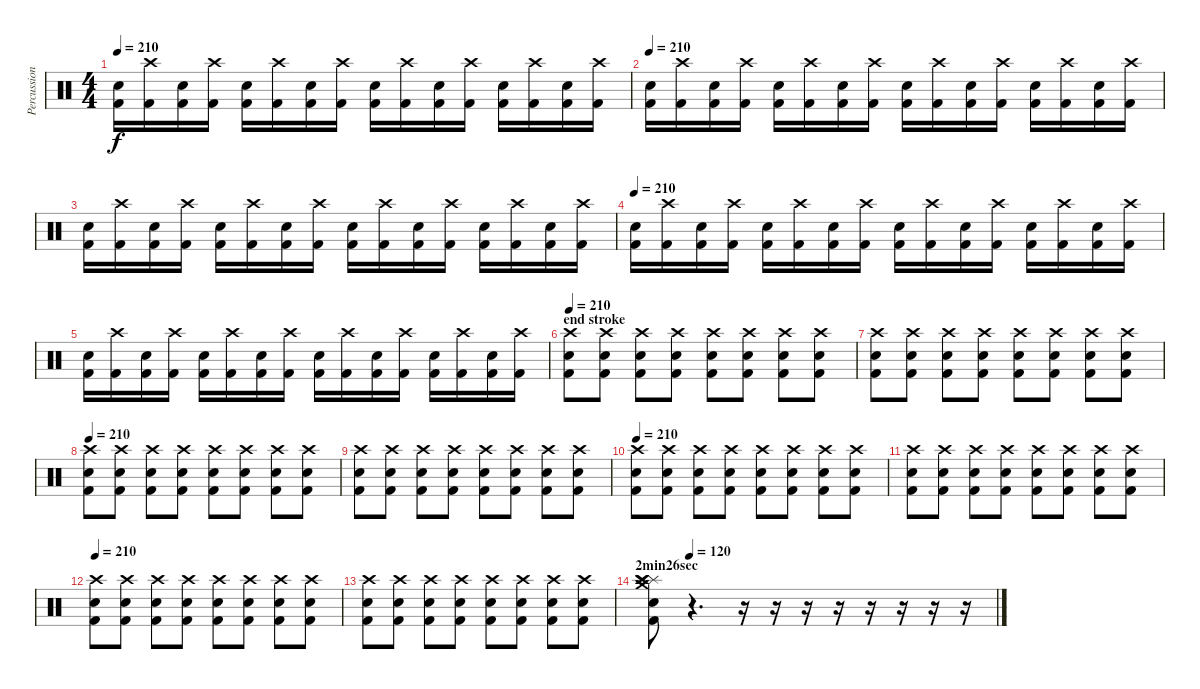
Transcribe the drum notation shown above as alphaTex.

\track ("Percussion" "Percussion") {instrument percussion}
\staff {score}
\articulation defaults
\ts (4 4)
\tempo 210
\clef neutral
\ks c
("Snare (hit) 2" "Kick (hit) 2").16{dy f} ("Crash high (hit)" "Kick (hit) 2").16 ("Snare (hit) 2" "Kick (hit) 2").16 ("Crash high (hit)" "Kick (hit) 2").16 ("Snare (hit) 2" "Kick (hit) 2").16 ("Crash high (hit)" "Kick (hit) 2").16 ("Snare (hit) 2" "Kick (hit) 2").16 ("Crash high (hit)" "Kick (hit) 2").16 ("Snare (hit) 2" "Kick (hit) 2").16 ("Crash high (hit)" "Kick (hit) 2").16 ("Snare (hit) 2" "Kick (hit) 2").16 ("Crash high (hit)" "Kick (hit) 2").16 ("Snare (hit) 2" "Kick (hit) 2").16 ("Crash high (hit)" "Kick (hit) 2").16 ("Snare (hit) 2" "Kick (hit) 2").16 ("Crash high (hit)" "Kick (hit) 2").16 |
\tempo 210
("Snare (hit) 2" "Kick (hit) 2").16 ("Crash high (hit)" "Kick (hit) 2").16 ("Snare (hit) 2" "Kick (hit) 2").16 ("Crash high (hit)" "Kick (hit) 2").16 ("Snare (hit) 2" "Kick (hit) 2").16 ("Crash high (hit)" "Kick (hit) 2").16 ("Snare (hit) 2" "Kick (hit) 2").16 ("Crash high (hit)" "Kick (hit) 2").16 ("Snare (hit) 2" "Kick (hit) 2").16 ("Crash high (hit)" "Kick (hit) 2").16 ("Snare (hit) 2" "Kick (hit) 2").16 ("Crash high (hit)" "Kick (hit) 2").16 ("Snare (hit) 2" "Kick (hit) 2").16 ("Crash high (hit)" "Kick (hit) 2").16 ("Snare (hit) 2" "Kick (hit) 2").16 ("Crash high (hit)" "Kick (hit) 2").16 |
("Snare (hit) 2" "Kick (hit) 2").16 ("Crash high (hit)" "Kick (hit) 2").16 ("Snare (hit) 2" "Kick (hit) 2").16 ("Crash high (hit)" "Kick (hit) 2").16 ("Snare (hit) 2" "Kick (hit) 2").16 ("Crash high (hit)" "Kick (hit) 2").16 ("Snare (hit) 2" "Kick (hit) 2").16 ("Crash high (hit)" "Kick (hit) 2").16 ("Snare (hit) 2" "Kick (hit) 2").16 ("Crash high (hit)" "Kick (hit) 2").16 ("Snare (hit) 2" "Kick (hit) 2").16 ("Crash high (hit)" "Kick (hit) 2").16 ("Snare (hit) 2" "Kick (hit) 2").16 ("Crash high (hit)" "Kick (hit) 2").16 ("Snare (hit) 2" "Kick (hit) 2").16 ("Crash high (hit)" "Kick (hit) 2").16 |
\tempo 210
("Snare (hit) 2" "Kick (hit) 2").16 ("Crash high (hit)" "Kick (hit) 2").16 ("Snare (hit) 2" "Kick (hit) 2").16 ("Crash high (hit)" "Kick (hit) 2").16 ("Snare (hit) 2" "Kick (hit) 2").16 ("Crash high (hit)" "Kick (hit) 2").16 ("Snare (hit) 2" "Kick (hit) 2").16 ("Crash high (hit)" "Kick (hit) 2").16 ("Snare (hit) 2" "Kick (hit) 2").16 ("Crash high (hit)" "Kick (hit) 2").16 ("Snare (hit) 2" "Kick (hit) 2").16 ("Crash high (hit)" "Kick (hit) 2").16 ("Snare (hit) 2" "Kick (hit) 2").16 ("Crash high (hit)" "Kick (hit) 2").16 ("Snare (hit) 2" "Kick (hit) 2").16 ("Crash high (hit)" "Kick (hit) 2").16 |
("Snare (hit) 2" "Kick (hit) 2").16 ("Crash high (hit)" "Kick (hit) 2").16 ("Snare (hit) 2" "Kick (hit) 2").16 ("Crash high (hit)" "Kick (hit) 2").16 ("Snare (hit) 2" "Kick (hit) 2").16 ("Crash high (hit)" "Kick (hit) 2").16 ("Snare (hit) 2" "Kick (hit) 2").16 ("Crash high (hit)" "Kick (hit) 2").16 ("Snare (hit) 2" "Kick (hit) 2").16 ("Crash high (hit)" "Kick (hit) 2").16 ("Snare (hit) 2" "Kick (hit) 2").16 ("Crash high (hit)" "Kick (hit) 2").16 ("Snare (hit) 2" "Kick (hit) 2").16 ("Crash high (hit)" "Kick (hit) 2").16 ("Snare (hit) 2" "Kick (hit) 2").16 ("Crash high (hit)" "Kick (hit) 2").16 |
\section ("" "end stroke")
\tempo 210
("Crash high (hit)" "Snare (hit) 2" "Kick (hit) 2").8 ("Crash high (hit)" "Snare (hit) 2" "Kick (hit) 2").8 ("Crash high (hit)" "Snare (hit) 2" "Kick (hit) 2").8 ("Crash high (hit)" "Snare (hit) 2" "Kick (hit) 2").8 ("Crash high (hit)" "Snare (hit) 2" "Kick (hit) 2").8 ("Crash high (hit)" "Snare (hit) 2" "Kick (hit) 2").8 ("Crash high (hit)" "Snare (hit) 2" "Kick (hit) 2").8 ("Crash high (hit)" "Snare (hit) 2" "Kick (hit) 2").8 |
("Crash high (hit)" "Snare (hit) 2" "Kick (hit) 2").8 ("Crash high (hit)" "Snare (hit) 2" "Kick (hit) 2").8 ("Crash high (hit)" "Snare (hit) 2" "Kick (hit) 2").8 ("Crash high (hit)" "Snare (hit) 2" "Kick (hit) 2").8 ("Crash high (hit)" "Snare (hit) 2" "Kick (hit) 2").8 ("Crash high (hit)" "Snare (hit) 2" "Kick (hit) 2").8 ("Crash high (hit)" "Snare (hit) 2" "Kick (hit) 2").8 ("Crash high (hit)" "Snare (hit) 2" "Kick (hit) 2").8 |
\tempo 210
("Crash high (hit)" "Snare (hit) 2" "Kick (hit) 2").8 ("Crash high (hit)" "Snare (hit) 2" "Kick (hit) 2").8 ("Crash high (hit)" "Snare (hit) 2" "Kick (hit) 2").8 ("Crash high (hit)" "Snare (hit) 2" "Kick (hit) 2").8 ("Crash high (hit)" "Snare (hit) 2" "Kick (hit) 2").8 ("Crash high (hit)" "Snare (hit) 2" "Kick (hit) 2").8 ("Crash high (hit)" "Snare (hit) 2" "Kick (hit) 2").8 ("Crash high (hit)" "Snare (hit) 2" "Kick (hit) 2").8 |
("Crash high (hit)" "Snare (hit) 2" "Kick (hit) 2").8 ("Crash high (hit)" "Snare (hit) 2" "Kick (hit) 2").8 ("Crash high (hit)" "Snare (hit) 2" "Kick (hit) 2").8 ("Crash high (hit)" "Snare (hit) 2" "Kick (hit) 2").8 ("Crash high (hit)" "Snare (hit) 2" "Kick (hit) 2").8 ("Crash high (hit)" "Snare (hit) 2" "Kick (hit) 2").8 ("Crash high (hit)" "Snare (hit) 2" "Kick (hit) 2").8 ("Crash high (hit)" "Snare (hit) 2" "Kick (hit) 2").8 |
\tempo 210
("Crash high (hit)" "Snare (hit) 2" "Kick (hit) 2").8 ("Crash high (hit)" "Snare (hit) 2" "Kick (hit) 2").8 ("Crash high (hit)" "Snare (hit) 2" "Kick (hit) 2").8 ("Crash high (hit)" "Snare (hit) 2" "Kick (hit) 2").8 ("Crash high (hit)" "Snare (hit) 2" "Kick (hit) 2").8 ("Crash high (hit)" "Snare (hit) 2" "Kick (hit) 2").8 ("Crash high (hit)" "Snare (hit) 2" "Kick (hit) 2").8 ("Crash high (hit)" "Snare (hit) 2" "Kick (hit) 2").8 |
("Crash high (hit)" "Snare (hit) 2" "Kick (hit) 2").8 ("Crash high (hit)" "Snare (hit) 2" "Kick (hit) 2").8 ("Crash high (hit)" "Snare (hit) 2" "Kick (hit) 2").8 ("Crash high (hit)" "Snare (hit) 2" "Kick (hit) 2").8 ("Crash high (hit)" "Snare (hit) 2" "Kick (hit) 2").8 ("Crash high (hit)" "Snare (hit) 2" "Kick (hit) 2").8 ("Crash high (hit)" "Snare (hit) 2" "Kick (hit) 2").8 ("Crash high (hit)" "Snare (hit) 2" "Kick (hit) 2").8 |
\tempo 210
("Crash high (hit)" "Snare (hit) 2" "Kick (hit) 2").8 ("Crash high (hit)" "Snare (hit) 2" "Kick (hit) 2").8 ("Crash high (hit)" "Snare (hit) 2" "Kick (hit) 2").8 ("Crash high (hit)" "Snare (hit) 2" "Kick (hit) 2").8 ("Crash high (hit)" "Snare (hit) 2" "Kick (hit) 2").8 ("Crash high (hit)" "Snare (hit) 2" "Kick (hit) 2").8 ("Crash high (hit)" "Snare (hit) 2" "Kick (hit) 2").8 ("Crash high (hit)" "Snare (hit) 2" "Kick (hit) 2").8 |
("Crash high (hit)" "Snare (hit) 2" "Kick (hit) 2").8 ("Crash high (hit)" "Snare (hit) 2" "Kick (hit) 2").8 ("Crash high (hit)" "Snare (hit) 2" "Kick (hit) 2").8 ("Crash high (hit)" "Snare (hit) 2" "Kick (hit) 2").8 ("Crash high (hit)" "Snare (hit) 2" "Kick (hit) 2").8 ("Crash high (hit)" "Snare (hit) 2" "Kick (hit) 2").8 ("Crash high (hit)" "Snare (hit) 2" "Kick (hit) 2").8 ("Crash high (hit)" "Snare (hit) 2" "Kick (hit) 2").8 |
\section ("" "2min26sec")
\tempo (120 0.125)
("Splash (hit)" "Crash medium (hit)" "Crash high (hit)" "Crash high (hit)" "Snare (hit) 2" "Kick (hit) 2").8 r.4{d} r.16 r.16 r.16 r.16 r.16 r.16 r.16 r.16
